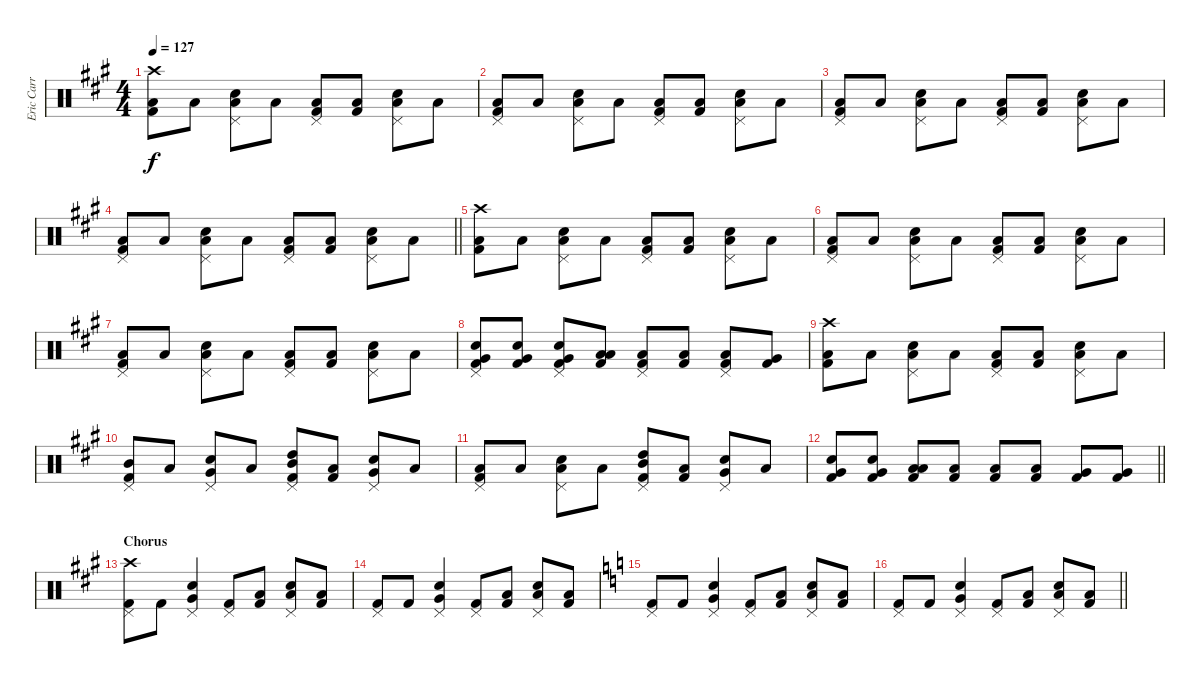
\track ("Eric Carr (Drums)" "Eric Carr ") {instrument percussion}
\staff {score}
\articulation defaults
\ts (4 4)
\tempo 127
\clef neutral
\ks a
("Crash high (hit)" "Low Tom (hit)" "Kick (hit) 2").8{dy f} "Low Tom (hit)".8 ("Pedal Hi-Hat (hit)" "Low Tom (hit)" "Snare (hit) 2").8 "Low Tom (hit)".8 ("Pedal Hi-Hat (hit)" "Low Tom (hit)" "Kick (hit) 2").8 ("Low Tom (hit)" "Kick (hit) 2").8 ("Pedal Hi-Hat (hit)" "Low Tom (hit)" "Snare (hit) 2").8 "Low Tom (hit)".8 |
("Pedal Hi-Hat (hit)" "Low Tom (hit)" "Kick (hit) 2").8 "Low Tom (hit)".8 ("Pedal Hi-Hat (hit)" "Low Tom (hit)" "Snare (hit) 2").8 "Low Tom (hit)".8 ("Pedal Hi-Hat (hit)" "Low Tom (hit)" "Kick (hit) 2").8 ("Low Tom (hit)" "Kick (hit) 2").8 ("Pedal Hi-Hat (hit)" "Low Tom (hit)" "Snare (hit) 2").8 "Low Tom (hit)".8 |
("Pedal Hi-Hat (hit)" "Low Tom (hit)" "Kick (hit) 2").8 "Low Tom (hit)".8 ("Pedal Hi-Hat (hit)" "Low Tom (hit)" "Snare (hit) 2").8 "Low Tom (hit)".8 ("Pedal Hi-Hat (hit)" "Low Tom (hit)" "Kick (hit) 2").8 ("Low Tom (hit)" "Kick (hit) 2").8 ("Pedal Hi-Hat (hit)" "Low Tom (hit)" "Snare (hit) 2").8 "Low Tom (hit)".8 |
\barLineRight lightlight
("Pedal Hi-Hat (hit)" "Low Tom (hit)" "Kick (hit) 2").8 "Low Tom (hit)".8 ("Pedal Hi-Hat (hit)" "Low Tom (hit)" "Snare (hit) 2").8 "Low Tom (hit)".8 ("Pedal Hi-Hat (hit)" "Low Tom (hit)" "Kick (hit) 2").8 ("Low Tom (hit)" "Kick (hit) 2").8 ("Pedal Hi-Hat (hit)" "Low Tom (hit)" "Snare (hit) 2").8 "Low Tom (hit)".8 |
("Crash high (hit)" "Low Tom (hit)" "Kick (hit) 2").8 "Low Tom (hit)".8 ("Pedal Hi-Hat (hit)" "Low Tom (hit)" "Snare (hit) 2").8 "Low Tom (hit)".8 ("Pedal Hi-Hat (hit)" "Low Tom (hit)" "Kick (hit) 2").8 ("Low Tom (hit)" "Kick (hit) 2").8 ("Pedal Hi-Hat (hit)" "Low Tom (hit)" "Snare (hit) 2").8 "Low Tom (hit)".8 |
("Pedal Hi-Hat (hit)" "Low Tom (hit)" "Kick (hit) 2").8 "Low Tom (hit)".8 ("Pedal Hi-Hat (hit)" "Low Tom (hit)" "Snare (hit) 2").8 "Low Tom (hit)".8 ("Pedal Hi-Hat (hit)" "Low Tom (hit)" "Kick (hit) 2").8 ("Low Tom (hit)" "Kick (hit) 2").8 ("Pedal Hi-Hat (hit)" "Low Tom (hit)" "Snare (hit) 2").8 "Low Tom (hit)".8 |
("Pedal Hi-Hat (hit)" "Low Tom (hit)" "Kick (hit) 2").8 "Low Tom (hit)".8 ("Pedal Hi-Hat (hit)" "Low Tom (hit)" "Snare (hit) 2").8 "Low Tom (hit)".8 ("Pedal Hi-Hat (hit)" "Low Tom (hit)" "Kick (hit) 2").8 ("Low Tom (hit)" "Kick (hit) 2").8 ("Pedal Hi-Hat (hit)" "Low Tom (hit)" "Snare (hit) 2").8 "Low Tom (hit)".8 |
("Pedal Hi-Hat (hit)" "Snare (hit) 2" "Very Low Tom (hit)" "Kick (hit) 2").8 ("Snare (hit) 2" "Very Low Tom (hit)" "Kick (hit) 2").8 ("Pedal Hi-Hat (hit)" "Snare (hit) 2" "Very Low Tom (hit)" "Kick (hit) 2").8 ("Low Tom (hit)" "Low Tom (hit)" "Kick (hit) 2").8 ("Pedal Hi-Hat (hit)" "Low Tom (hit)" "Kick (hit) 2").8 ("Low Floor Tom (hit)" "Kick (hit) 2").8 ("Pedal Hi-Hat (hit)" "Low Floor Tom (hit)" "Kick (hit) 2").8 ("Very Low Tom (hit)" "Kick (hit) 2").8 |
("Crash high (hit)" "Low Tom (hit)" "Kick (hit) 2").8 "Low Tom (hit)".8 ("Pedal Hi-Hat (hit)" "Low Tom (hit)" "Snare (hit) 2").8 "Low Tom (hit)".8 ("Pedal Hi-Hat (hit)" "Low Tom (hit)" "Kick (hit) 2").8 ("Low Tom (hit)" "Kick (hit) 2").8 ("Pedal Hi-Hat (hit)" "Low Tom (hit)" "Snare (hit) 2").8 "Low Tom (hit)".8 |
("Pedal Hi-Hat (hit)" "Mid Tom (hit)" "Kick (hit) 2").8 "Low Tom (hit)".8 ("Pedal Hi-Hat (hit)" "Very Low Tom (hit)" "Snare (hit) 2").8 "Low Tom (hit)".8 ("Pedal Hi-Hat (hit)" "Mid Tom (hit)" "High Tom (hit)" "Kick (hit) 2").8 ("Low Tom (hit)" "Kick (hit) 2").8 ("Pedal Hi-Hat (hit)" "Very Low Tom (hit)" "Snare (hit) 2").8 "Low Tom (hit)".8 |
("Pedal Hi-Hat (hit)" "Low Tom (hit)" "Kick (hit) 2").8 "Low Tom (hit)".8 ("Pedal Hi-Hat (hit)" "Low Tom (hit)" "Snare (hit) 2").8 "Low Tom (hit)".8 ("Pedal Hi-Hat (hit)" "Mid Tom (hit)" "High Tom (hit)" "Kick (hit) 2").8 ("Low Tom (hit)" "Kick (hit) 2").8 ("Pedal Hi-Hat (hit)" "Very Low Tom (hit)" "Snare (hit) 2").8 "Low Tom (hit)".8 |
\barLineRight lightlight
("Snare (hit) 2" "Very Low Tom (hit)" "Kick (hit) 2").8 ("Snare (hit) 2" "Very Low Tom (hit)" "Kick (hit) 2").8 ("Low Tom (hit)" "Low Tom (hit)" "Kick (hit) 2").8 ("Low Tom (hit)" "Kick (hit) 2").8 ("Low Floor Tom (hit)" "Kick (hit) 2").8 ("Low Floor Tom (hit)" "Kick (hit) 2").8 ("Very Low Tom (hit)" "Kick (hit) 2").8 ("Very Low Tom (hit)" "Kick (hit) 2").8 |
\section ("" "Chorus")
("Crash high (hit)" "Pedal Hi-Hat (hit)" "Kick (hit) 2").8 "Kick (hit) 2".8 ("Pedal Hi-Hat (hit)" "Very Low Tom (hit)" "Snare (hit) 2").4 ("Pedal Hi-Hat (hit)" "Kick (hit) 2").8 ("Low Tom (hit)" "Kick (hit) 2").8 ("Pedal Hi-Hat (hit)" "Low Floor Tom (hit)" "Snare (hit) 2").8 ("Low Tom (hit)" "Kick (hit) 2").8 |
("Pedal Hi-Hat (hit)" "Kick (hit) 2").8 "Kick (hit) 2".8 ("Pedal Hi-Hat (hit)" "Very Low Tom (hit)" "Snare (hit) 2").4 ("Pedal Hi-Hat (hit)" "Kick (hit) 2").8 ("Low Tom (hit)" "Kick (hit) 2").8 ("Pedal Hi-Hat (hit)" "Low Floor Tom (hit)" "Snare (hit) 2").8 ("Low Tom (hit)" "Kick (hit) 2").8 |
\ks c
("Pedal Hi-Hat (hit)" "Kick (hit) 2").8 "Kick (hit) 2".8 ("Pedal Hi-Hat (hit)" "Very Low Tom (hit)" "Snare (hit) 2").4 ("Pedal Hi-Hat (hit)" "Kick (hit) 2").8 ("Low Tom (hit)" "Kick (hit) 2").8 ("Pedal Hi-Hat (hit)" "Low Floor Tom (hit)" "Snare (hit) 2").8 ("Low Tom (hit)" "Kick (hit) 2").8 |
\barLineRight lightlight
("Pedal Hi-Hat (hit)" "Kick (hit) 2").8 "Kick (hit) 2".8 ("Pedal Hi-Hat (hit)" "Very Low Tom (hit)" "Snare (hit) 2").4 ("Pedal Hi-Hat (hit)" "Kick (hit) 2").8 ("Low Tom (hit)" "Kick (hit) 2").8 ("Pedal Hi-Hat (hit)" "Low Floor Tom (hit)" "Snare (hit) 2").8 ("Low Tom (hit)" "Kick (hit) 2").8
